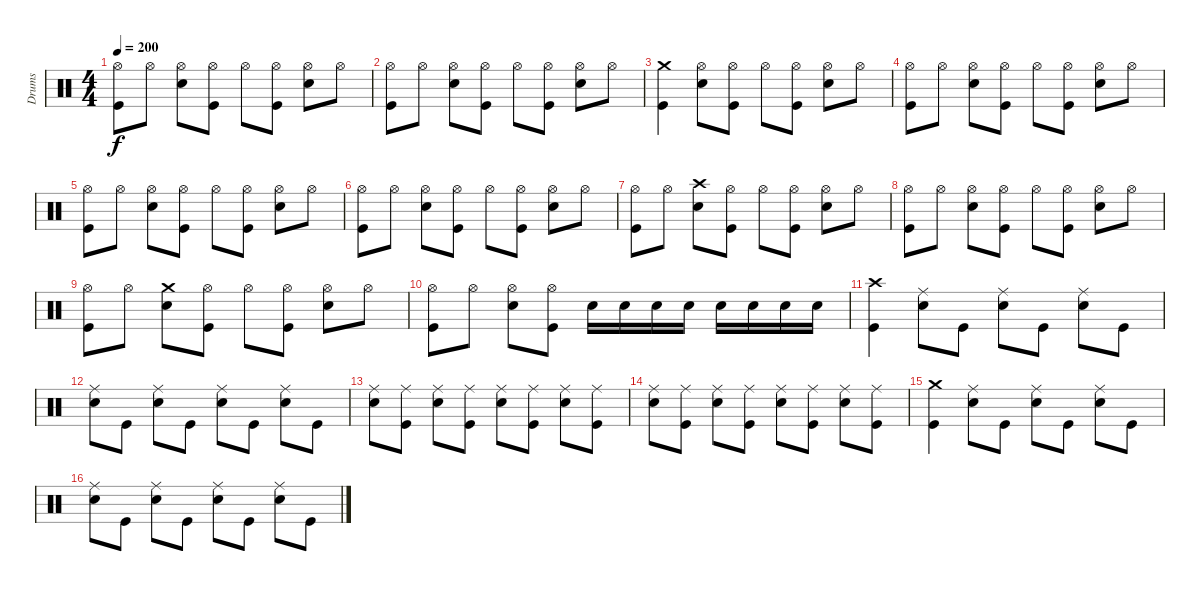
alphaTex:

\track ("Drums" "Drums") {instrument percussion}
\staff {score}
\articulation defaults
\ts (4 4)
\tempo 200
\clef neutral
\ks c
("Hi-Hat (open)" "Kick (hit)").8{dy f} "Hi-Hat (open)".8 ("Hi-Hat (open)" "Snare (hit) 2").8 ("Hi-Hat (open)" "Kick (hit)").8 "Hi-Hat (open)".8 ("Hi-Hat (open)" "Kick (hit)").8 ("Hi-Hat (open)" "Snare (hit) 2").8 "Hi-Hat (open)".8 |
("Hi-Hat (open)" "Kick (hit)").8 "Hi-Hat (open)".8 ("Hi-Hat (open)" "Snare (hit) 2").8 ("Hi-Hat (open)" "Kick (hit)").8 "Hi-Hat (open)".8 ("Hi-Hat (open)" "Kick (hit)").8 ("Hi-Hat (open)" "Snare (hit) 2").8 "Hi-Hat (open)".8 |
("Crash medium (hit)" "Kick (hit)").4 ("Hi-Hat (open)" "Snare (hit) 2").8 ("Hi-Hat (open)" "Kick (hit)").8 "Hi-Hat (open)".8 ("Hi-Hat (open)" "Kick (hit)").8 ("Hi-Hat (open)" "Snare (hit) 2").8 "Hi-Hat (open)".8 |
("Hi-Hat (open)" "Kick (hit)").8 "Hi-Hat (open)".8 ("Hi-Hat (open)" "Snare (hit) 2").8 ("Hi-Hat (open)" "Kick (hit)").8 "Hi-Hat (open)".8 ("Hi-Hat (open)" "Kick (hit)").8 ("Hi-Hat (open)" "Snare (hit) 2").8 "Hi-Hat (open)".8 |
("Hi-Hat (open)" "Kick (hit)").8 "Hi-Hat (open)".8 ("Hi-Hat (open)" "Snare (hit) 2").8 ("Hi-Hat (open)" "Kick (hit)").8 "Hi-Hat (open)".8 ("Hi-Hat (open)" "Kick (hit)").8 ("Hi-Hat (open)" "Snare (hit) 2").8 "Hi-Hat (open)".8 |
("Hi-Hat (open)" "Kick (hit)").8 "Hi-Hat (open)".8 ("Hi-Hat (open)" "Snare (hit) 2").8 ("Hi-Hat (open)" "Kick (hit)").8 "Hi-Hat (open)".8 ("Hi-Hat (open)" "Kick (hit)").8 ("Hi-Hat (open)" "Snare (hit) 2").8 "Hi-Hat (open)".8 |
("Hi-Hat (open)" "Kick (hit)").8 "Hi-Hat (open)".8 ("Crash high (hit)" "Snare (hit) 2").8 ("Hi-Hat (open)" "Kick (hit)").8 "Hi-Hat (open)".8 ("Hi-Hat (open)" "Kick (hit)").8 ("Hi-Hat (open)" "Snare (hit) 2").8 "Hi-Hat (open)".8 |
("Hi-Hat (open)" "Kick (hit)").8 "Hi-Hat (open)".8 ("Hi-Hat (open)" "Snare (hit) 2").8 ("Hi-Hat (open)" "Kick (hit)").8 "Hi-Hat (open)".8 ("Hi-Hat (open)" "Kick (hit)").8 ("Hi-Hat (open)" "Snare (hit) 2").8 "Hi-Hat (open)".8 |
("Hi-Hat (open)" "Kick (hit)").8 "Hi-Hat (open)".8 ("Crash medium (hit)" "Snare (hit) 2").8 ("Hi-Hat (open)" "Kick (hit)").8 "Hi-Hat (open)".8 ("Hi-Hat (open)" "Kick (hit)").8 ("Hi-Hat (open)" "Snare (hit) 2").8 "Hi-Hat (open)".8 |
("Hi-Hat (open)" "Kick (hit)").8 "Hi-Hat (open)".8 ("Hi-Hat (open)" "Snare (hit) 2").8 ("Hi-Hat (open)" "Kick (hit)").8 "Snare (hit) 2".16 "Snare (hit) 2".16 "Snare (hit) 2".16 "Snare (hit) 2".16 "Snare (hit) 2".16 "Snare (hit) 2".16 "Snare (hit) 2".16 "Snare (hit) 2".16 |
("Crash high (hit)" "Kick (hit)").4 ("Ride (middle)" "Snare (hit) 2").8 "Kick (hit)".8 ("Ride (middle)" "Snare (hit) 2").8 "Kick (hit)".8 ("Ride (middle)" "Snare (hit) 2").8 "Kick (hit)".8 |
("Ride (middle)" "Snare (hit) 2").8 "Kick (hit)".8 ("Ride (middle)" "Snare (hit) 2").8 "Kick (hit)".8 ("Ride (middle)" "Snare (hit) 2").8 "Kick (hit)".8 ("Ride (middle)" "Snare (hit) 2").8 "Kick (hit)".8 |
("Ride (middle)" "Snare (hit) 2").8 ("Ride (middle)" "Kick (hit)").8 ("Ride (middle)" "Snare (hit) 2").8 ("Ride (middle)" "Kick (hit)").8 ("Ride (middle)" "Snare (hit) 2").8 ("Ride (middle)" "Kick (hit)").8 ("Ride (middle)" "Snare (hit) 2").8 ("Ride (middle)" "Kick (hit)").8 |
("Ride (middle)" "Snare (hit) 2").8 ("Ride (middle)" "Kick (hit)").8 ("Ride (middle)" "Snare (hit) 2").8 ("Ride (middle)" "Kick (hit)").8 ("Ride (middle)" "Snare (hit) 2").8 ("Ride (middle)" "Kick (hit)").8 ("Ride (middle)" "Snare (hit) 2").8 ("Ride (middle)" "Kick (hit)").8 |
("Crash medium (hit)" "Kick (hit)").4 ("Ride (middle)" "Snare (hit) 2").8 "Kick (hit)".8 ("Ride (middle)" "Snare (hit) 2").8 "Kick (hit)".8 ("Ride (middle)" "Snare (hit) 2").8 "Kick (hit)".8 |
("Ride (middle)" "Snare (hit) 2").8 "Kick (hit)".8 ("Ride (middle)" "Snare (hit) 2").8 "Kick (hit)".8 ("Ride (middle)" "Snare (hit) 2").8 "Kick (hit)".8 ("Ride (middle)" "Snare (hit) 2").8 "Kick (hit)".8
